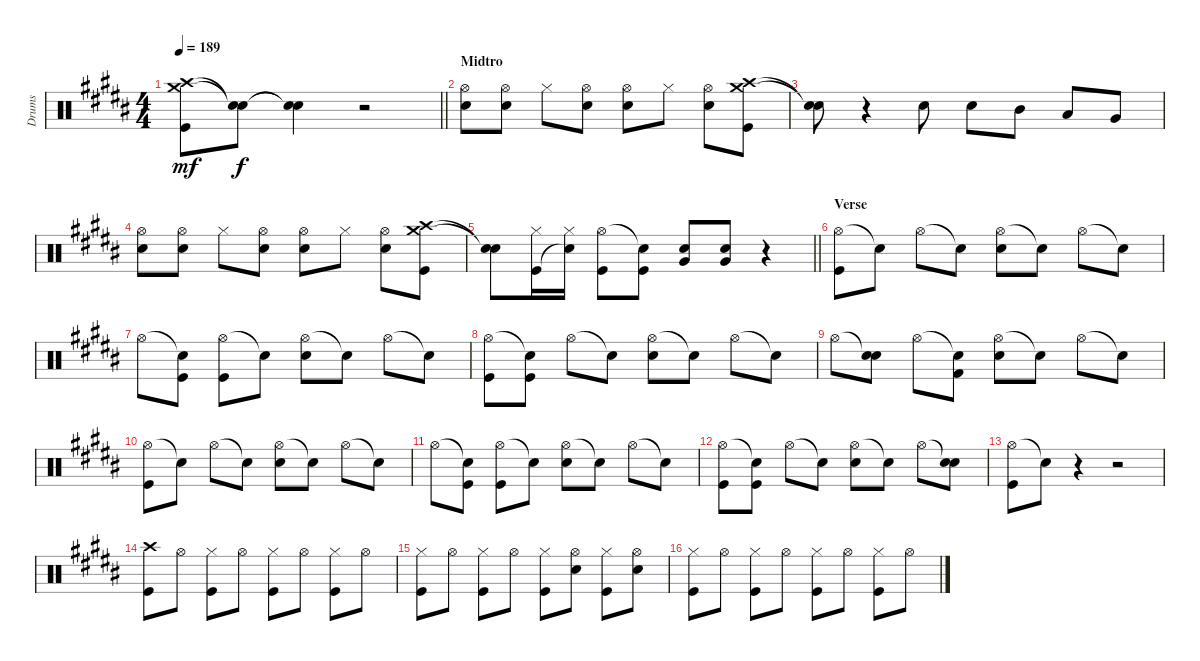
\track ("Drums" "Drums") {instrument percussion}
\staff {score}
\articulation defaults
\ts (4 4)
\tempo 189
\clef neutral
\barLineRight lightlight
\ks b
("Crash high (hit)" "Crash medium (hit)" "Kick (hit)").8{dy mf} ("Snare (hit)"{t} "Snare (hit)"{t}).8{dy f} ("Snare (hit)"{t} "Snare (hit)"{t}).4 r.2 |
\section ("" "Midtro")
("Hi-Hat (open)" "Snare (hit) 2").8 ("Hi-Hat (open)" "Snare (hit) 2").8 "Hi-Hat (closed)".8 ("Hi-Hat (open)" "Snare (hit) 2").8 ("Hi-Hat (open)" "Snare (hit) 2").8 "Hi-Hat (closed)".8 ("Hi-Hat (open)" "Snare (hit) 2").8 ("Crash high (hit)" "Crash medium (hit)" "Kick (hit)").8 |
("Snare (hit)"{t} "Snare (hit)"{t}).8 r.4 "Snare (hit) 2".8 "Snare (hit) 2".8 "Mid Tom (hit)".8 "Low Tom (hit)".8 "Very Low Tom (hit)".8 |
("Hi-Hat (open)" "Snare (hit) 2").8 ("Hi-Hat (open)" "Snare (hit) 2").8 "Hi-Hat (closed)".8 ("Hi-Hat (open)" "Snare (hit) 2").8 ("Hi-Hat (open)" "Snare (hit) 2").8 "Hi-Hat (closed)".8 ("Hi-Hat (open)" "Snare (hit) 2").8 ("Crash high (hit)" "Crash medium (hit)" "Kick (hit)").8 |
\barLineRight lightlight
("Snare (hit)"{t} "Snare (hit)"{t}).8 ("Hi-Hat (closed)" "Kick (hit)").16 ("Hi-Hat (closed)" "Snare (hit)"{t}).16 ("Hi-Hat (open)" "Kick (hit)").8 ("Snare (hit)"{t} "Kick (hit)").8 ("Snare (hit) 2" "Very Low Tom (hit)").8 ("Snare (hit) 2" "Very Low Tom (hit)").8 r.4 |
\section ("" "Verse")
("Hi-Hat (open)" "Kick (hit)").8 "Snare (hit)"{t}.8 "Hi-Hat (open)".8 "Snare (hit)"{t}.8 ("Hi-Hat (open)" "Snare (hit) 2").8 "Snare (hit)"{t}.8 "Hi-Hat (open)".8 "Snare (hit)"{t}.8 |
"Hi-Hat (open)".8 ("Snare (hit)"{t} "Kick (hit)").8 ("Hi-Hat (open)" "Kick (hit)").8 "Snare (hit)"{t}.8 ("Hi-Hat (open)" "Snare (hit) 2").8 "Snare (hit)"{t}.8 "Hi-Hat (open)".8 "Snare (hit)"{t}.8 |
("Hi-Hat (open)" "Kick (hit)").8 ("Snare (hit)"{t} "Kick (hit)").8 "Hi-Hat (open)".8 "Snare (hit)"{t}.8 ("Hi-Hat (open)" "Snare (hit) 2").8 "Snare (hit)"{t}.8 "Hi-Hat (open)".8 "Snare (hit)"{t}.8 |
"Hi-Hat (open)".8 ("Snare (hit)"{t} "Snare (hit) 2").8 "Hi-Hat (open)".8 ("Snare (hit)"{t} "Kick (hit) 2").8 ("Hi-Hat (open)" "Snare (hit) 2").8 "Snare (hit)"{t}.8 "Hi-Hat (open)".8 "Snare (hit)"{t}.8 |
("Hi-Hat (open)" "Kick (hit)").8 "Snare (hit)"{t}.8 "Hi-Hat (open)".8 "Snare (hit)"{t}.8 ("Hi-Hat (open)" "Snare (hit) 2").8 "Snare (hit)"{t}.8 "Hi-Hat (open)".8 "Snare (hit)"{t}.8 |
"Hi-Hat (open)".8 ("Snare (hit)"{t} "Kick (hit)").8 ("Hi-Hat (open)" "Kick (hit)").8 "Snare (hit)"{t}.8 ("Hi-Hat (open)" "Snare (hit) 2").8 "Snare (hit)"{t}.8 "Hi-Hat (open)".8 "Snare (hit)"{t}.8 |
("Hi-Hat (open)" "Kick (hit)").8 ("Snare (hit)"{t} "Kick (hit)").8 "Hi-Hat (open)".8 "Snare (hit)"{t}.8 ("Hi-Hat (open)" "Snare (hit) 2").8 "Snare (hit)"{t}.8 "Hi-Hat (open)".8 ("Snare (hit)"{t} "Snare (hit) 2").8 |
("Hi-Hat (open)" "Kick (hit)").8 "Snare (hit)"{t}.8 r.4 r.2 |
("Crash high (hit)" "Kick (hit)").8 "Hi-Hat (open)".8 ("Hi-Hat (closed)" "Kick (hit)").8 "Hi-Hat (open)".8 ("Hi-Hat (closed)" "Kick (hit)").8 "Hi-Hat (open)".8 ("Hi-Hat (closed)" "Kick (hit)").8 "Hi-Hat (open)".8 |
("Hi-Hat (closed)" "Kick (hit)").8 "Hi-Hat (open)".8 ("Hi-Hat (closed)" "Kick (hit)").8 "Hi-Hat (open)".8 ("Hi-Hat (closed)" "Kick (hit)").8 ("Hi-Hat (open)" "Snare (hit) 2").8 ("Hi-Hat (closed)" "Kick (hit)").8 ("Hi-Hat (open)" "Snare (hit) 2").8 |
("Hi-Hat (closed)" "Kick (hit)").8 "Hi-Hat (open)".8 ("Hi-Hat (closed)" "Kick (hit)").8 "Hi-Hat (open)".8 ("Hi-Hat (closed)" "Kick (hit)").8 "Hi-Hat (open)".8 ("Hi-Hat (closed)" "Kick (hit)").8 "Hi-Hat (open)".8
